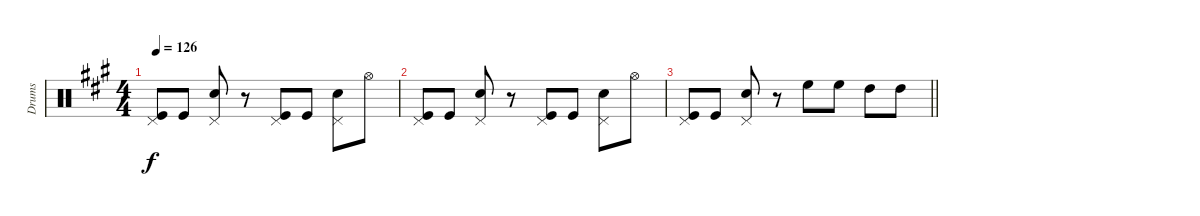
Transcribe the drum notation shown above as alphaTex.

\track ("Drums" "Drums") {instrument percussion}
\staff {score}
\articulation defaults
\ts (4 4)
\tempo 126
\clef neutral
\ks a
("Pedal Hi-Hat (hit)" "Kick (hit)").8{dy f} "Kick (hit)".8 ("Pedal Hi-Hat (hit)" "Snare (hit) 2").8 r.8 ("Pedal Hi-Hat (hit)" "Kick (hit)").8 "Kick (hit)".8 ("Pedal Hi-Hat (hit)" "Snare (hit) 2").8 "Hi-Hat (open)".8 |
("Pedal Hi-Hat (hit)" "Kick (hit)").8 "Kick (hit)".8 ("Pedal Hi-Hat (hit)" "Snare (hit) 2").8 r.8 ("Pedal Hi-Hat (hit)" "Kick (hit)").8 "Kick (hit)".8 ("Pedal Hi-Hat (hit)" "Snare (hit) 2").8 "Hi-Hat (open)".8 |
\barLineRight lightlight
("Pedal Hi-Hat (hit)" "Kick (hit)").8 "Kick (hit)".8 ("Pedal Hi-Hat (hit)" "Snare (hit) 2").8 r.8 "High Floor Tom (hit)".8 "High Floor Tom (hit)".8 "High Tom (hit)".8 "High Tom (hit)".8
